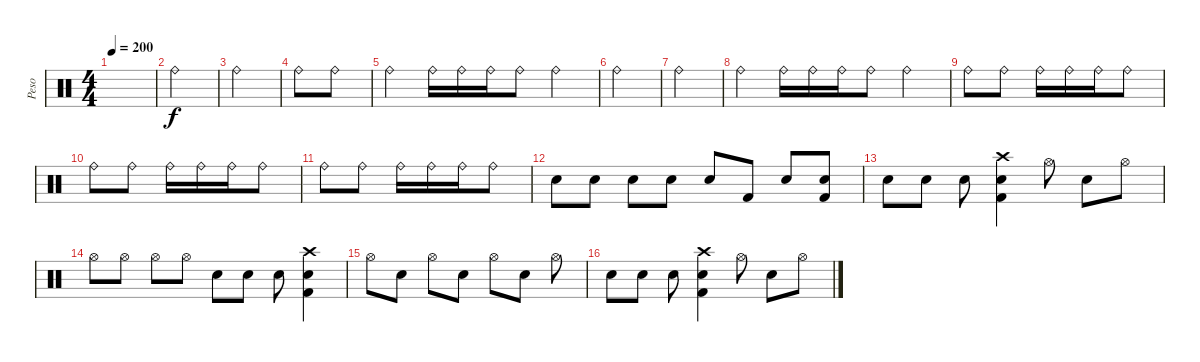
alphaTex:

\track ("Peso" "Peso") {instrument percussion}
\staff {score}
\articulation defaults
\ts (4 4)
\tempo 200
\clef neutral
\ks c
|
"Ride (bell)".4 |
"Ride (bell)".4 |
"Ride (bell)".8 "Ride (bell)".8 |
"Ride (bell)".4 "Ride (bell)".16 "Ride (bell)".16 "Ride (bell)".16 "Ride (bell)".8 "Ride (bell)".4 |
"Ride (bell)".4 |
"Ride (bell)".4 |
"Ride (bell)".4 "Ride (bell)".16 "Ride (bell)".16 "Ride (bell)".16 "Ride (bell)".8 "Ride (bell)".4 |
"Ride (bell)".8 "Ride (bell)".8 "Ride (bell)".16 "Ride (bell)".16 "Ride (bell)".16 "Ride (bell)".8 |
"Ride (bell)".8 "Ride (bell)".8 "Ride (bell)".16 "Ride (bell)".16 "Ride (bell)".16 "Ride (bell)".8 |
"Ride (bell)".8 "Ride (bell)".8 "Ride (bell)".16 "Ride (bell)".16 "Ride (bell)".16 "Ride (bell)".8 |
"Snare (hit)"{x}.8 "Snare (hit)"{x}.8 "Snare (hit)"{x}.8 "Snare (hit)"{x}.8 "Snare (hit) 2"{x}.8 "Kick (hit) 2"{x}.8 "Snare (hit) 2".8 ("Snare (hit) 2" "Kick (hit) 2").8 |
"Snare (hit) 2".8 "Snare (hit) 2".8 "Snare (hit) 2".8 ("Crash high (hit)" "Snare (hit) 2" "Kick (hit) 2").4 "Hi-Hat (open)".8 "Snare (hit)"{x}.8 "Hi-Hat (open)".8 |
"Hi-Hat (open)"{x}.8 "Hi-Hat (open)".8 "Hi-Hat (open)"{x}.8 "Hi-Hat (open)".8 "Snare (hit) 2".8 "Snare (hit) 2".8 "Snare (hit) 2".8 ("Crash high (hit)" "Snare (hit) 2" "Kick (hit) 2").4 |
"Hi-Hat (open)".8 "Snare (hit)"{x}.8 "Hi-Hat (open)".8 "Snare (hit)"{x}.8 "Hi-Hat (open)".8 "Snare (hit)"{x}.8 "Hi-Hat (open)".8 |
"Snare (hit) 2".8 "Snare (hit) 2".8 "Snare (hit) 2".8 ("Crash high (hit)" "Snare (hit) 2" "Kick (hit) 2").4 "Hi-Hat (open)".8 "Snare (hit)"{x}.8 "Hi-Hat (open)".8
